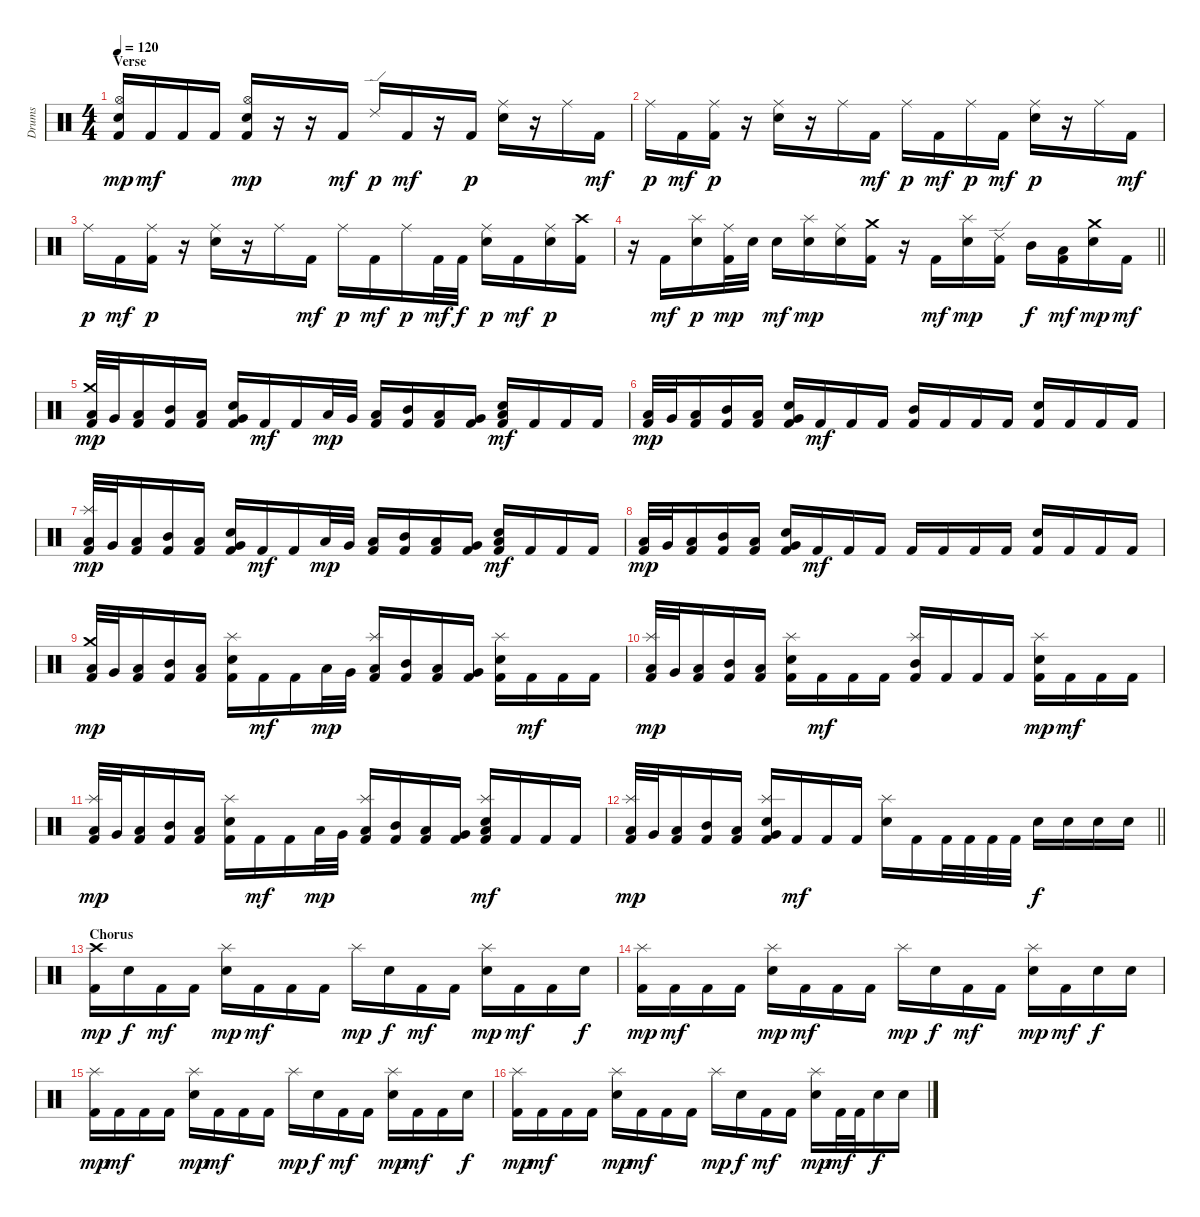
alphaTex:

\track ("Drums" "Drums") {instrument percussion}
\staff {score}
\articulation defaults
\ts (4 4)
\section ("" "Verse")
\tempo 120
\clef neutral
\ks c
("Kick (hit) 2" "Hi-Hat (open)" "Snare (hit) 2").16{dy mp} "Kick (hit) 2".16{dy mf} "Kick (hit) 2".16 "Kick (hit) 2".16 ("Kick (hit) 2" "Hi-Hat (open)" "Snare (hit) 2").16{dy mp} r.16 r.16 "Kick (hit) 2".16{dy mf} "Ride (edge) 2".16{dy p} "Kick (hit) 2".16{dy mf} r.16 "Kick (hit) 2".16{dy p} ("Ride (middle)" "Snare (hit) 2").16 r.16 "Ride (middle)".16 "Kick (hit) 2".16{dy mf} |
"Ride (middle)".16{dy p} "Kick (hit) 2".16{dy mf} ("Kick (hit) 2" "Ride (middle)").16{dy p} r.16 ("Ride (middle)" "Snare (hit) 2").16 r.16 "Ride (middle)".16 "Kick (hit) 2".16{dy mf} "Ride (middle)".16{dy p} "Kick (hit) 2".16{dy mf} "Ride (middle)".16{dy p} "Kick (hit) 2".16{dy mf} ("Ride (middle)" "Snare (hit) 2").16{dy p} r.16 "Ride (middle)".16 "Kick (hit) 2".16{dy mf} |
"Ride (middle)".16{dy p} "Kick (hit) 2".16{dy mf} ("Kick (hit) 2" "Ride (middle)").16{dy p} r.16 ("Ride (middle)" "Snare (hit) 2").16 r.16 "Ride (middle)".16 "Kick (hit) 2".16{dy mf} "Ride (middle)".16{dy p} "Kick (hit) 2".16{dy mf} "Ride (middle)".16{dy p} "Kick (hit) 2".32{dy mf} "Kick (hit) 2".32{dy f} ("Ride (middle)" "Snare (hit) 2").16{dy p} "Kick (hit) 2".16{dy mf} ("Ride (middle)" "Snare (hit) 2").16{dy p} ("Kick (hit) 2" "Crash high (hit)").16 |
\barLineRight lightlight
r.16 "Kick (hit) 2".16{dy mf} ("Splash (hit)" "Snare (hit) 2").16{dy p} ("Kick (hit) 2" "Ride (middle)").32{dy mp} "Snare (hit) 2".32 "Snare (hit) 2".16{dy mf} ("Splash (hit)" "Snare (hit) 2").16{dy mp} ("Ride (middle)" "Snare (hit) 2").16 ("Kick (hit) 2" "Crash medium (hit)").16 r.16 "Kick (hit) 2".16{dy mf} ("Splash (hit)" "Snare (hit) 2").16{dy mp} ("Kick (hit) 2" "Ride (edge) 2").16 "Mid Tom (hit)".16{dy f} ("Kick (hit) 2" "Low Tom (hit)").16{dy mf} ("Crash medium (hit)" "Snare (hit) 2").16{dy mp} "Kick (hit) 2".16{dy mf} |
("Kick (hit) 2" "Crash medium (hit)" "Low Tom (hit)").32{dy mp} "Very Low Tom (hit)".32 ("Kick (hit) 2" "Low Tom (hit)").16 ("Kick (hit) 2" "Mid Tom (hit)").16 ("Kick (hit) 2" "Low Tom (hit)").16 ("Kick (hit) 2" "Snare (hit) 2" "Very Low Tom (hit)").16 "Kick (hit) 2".16{dy mf} "Kick (hit) 2".16 "Low Tom (hit)".32{dy mp} "Very Low Tom (hit)".32 ("Kick (hit) 2" "Low Tom (hit)").16 ("Kick (hit) 2" "Mid Tom (hit)").16 ("Kick (hit) 2" "Low Tom (hit)").16 ("Kick (hit) 2" "Very Low Tom (hit)").16 ("Kick (hit) 2" "Snare (hit) 2" "Low Floor Tom (hit)").16{dy mf} "Kick (hit) 2".16 "Kick (hit) 2".16 "Kick (hit) 2".16 |
("Kick (hit) 2" "Low Tom (hit)").32{dy mp} "Very Low Tom (hit)".32 ("Kick (hit) 2" "Low Tom (hit)").16 ("Kick (hit) 2" "Mid Tom (hit)").16 ("Kick (hit) 2" "Low Tom (hit)").16 ("Kick (hit) 2" "Snare (hit) 2" "Very Low Tom (hit)").16 "Kick (hit) 2".16{dy mf} "Kick (hit) 2".16 "Kick (hit) 2".16 ("Kick (hit) 2" "Mid Tom (hit)").16 "Kick (hit) 2".16 "Kick (hit) 2".16 "Kick (hit) 2".16 ("Kick (hit) 2" "Snare (hit) 2").16 "Kick (hit) 2".16 "Kick (hit) 2".16 "Kick (hit) 2".16 |
("Kick (hit) 2" "Splash (hit)" "Low Tom (hit)").32{dy mp} "Very Low Tom (hit)".32 ("Kick (hit) 2" "Low Tom (hit)").16 ("Kick (hit) 2" "Mid Tom (hit)").16 ("Kick (hit) 2" "Low Tom (hit)").16 ("Kick (hit) 2" "Snare (hit) 2" "Very Low Tom (hit)").16 "Kick (hit) 2".16{dy mf} "Kick (hit) 2".16 "Low Tom (hit)".32{dy mp} "Very Low Tom (hit)".32 ("Kick (hit) 2" "Low Tom (hit)").16 ("Kick (hit) 2" "Mid Tom (hit)").16 ("Kick (hit) 2" "Low Tom (hit)").16 ("Kick (hit) 2" "Very Low Tom (hit)").16 ("Kick (hit) 2" "Snare (hit) 2" "Low Floor Tom (hit)").16{dy mf} "Kick (hit) 2".16 "Kick (hit) 2".16 "Kick (hit) 2".16 |
("Kick (hit) 2" "Low Tom (hit)").32{dy mp} "Very Low Tom (hit)".32 ("Kick (hit) 2" "Low Tom (hit)").16 ("Kick (hit) 2" "Mid Tom (hit)").16 ("Kick (hit) 2" "Low Tom (hit)").16 ("Kick (hit) 2" "Snare (hit) 2" "Very Low Tom (hit)").16 "Kick (hit) 2".16{dy mf} "Kick (hit) 2".16 "Kick (hit) 2".16 "Kick (hit) 2".16 "Kick (hit) 2".16 "Kick (hit) 2".16 "Kick (hit) 2".16 ("Kick (hit) 2" "Snare (hit) 2").16 "Kick (hit) 2".16 "Kick (hit) 2".16 "Kick (hit) 2".16 |
("Kick (hit) 2" "Crash medium (hit)" "Low Tom (hit)").32{dy mp} "Very Low Tom (hit)".32 ("Kick (hit) 2" "Low Tom (hit)").16 ("Kick (hit) 2" "Mid Tom (hit)").16 ("Kick (hit) 2" "Low Tom (hit)").16 ("Kick (hit) 2" "Splash (hit)" "Snare (hit) 2").16 "Kick (hit) 2".16{dy mf} "Kick (hit) 2".16 "Low Tom (hit)".32{dy mp} "Very Low Tom (hit)".32 ("Kick (hit) 2" "Splash (hit)" "Low Tom (hit)").16 ("Kick (hit) 2" "Mid Tom (hit)").16 ("Kick (hit) 2" "Low Tom (hit)").16 ("Kick (hit) 2" "Very Low Tom (hit)").16 ("Kick (hit) 2" "Splash (hit)" "Snare (hit) 2").16 "Kick (hit) 2".16{dy mf} "Kick (hit) 2".16 "Kick (hit) 2".16 |
("Kick (hit) 2" "Splash (hit)" "Low Tom (hit)").32{dy mp} "Very Low Tom (hit)".32 ("Kick (hit) 2" "Low Tom (hit)").16 ("Kick (hit) 2" "Mid Tom (hit)").16 ("Kick (hit) 2" "Low Tom (hit)").16 ("Kick (hit) 2" "Splash (hit)" "Snare (hit) 2").16 "Kick (hit) 2".16{dy mf} "Kick (hit) 2".16 "Kick (hit) 2".16 ("Kick (hit) 2" "Splash (hit)" "Mid Tom (hit)").16 "Kick (hit) 2".16 "Kick (hit) 2".16 "Kick (hit) 2".16 ("Kick (hit) 2" "Splash (hit)" "Snare (hit) 2").16{dy mp} "Kick (hit) 2".16{dy mf} "Kick (hit) 2".16 "Kick (hit) 2".16 |
("Kick (hit) 2" "Splash (hit)" "Low Tom (hit)").32{dy mp} "Very Low Tom (hit)".32 ("Kick (hit) 2" "Low Tom (hit)").16 ("Kick (hit) 2" "Mid Tom (hit)").16 ("Kick (hit) 2" "Low Tom (hit)").16 ("Kick (hit) 2" "Splash (hit)" "Snare (hit) 2").16 "Kick (hit) 2".16{dy mf} "Kick (hit) 2".16 "Low Tom (hit)".32{dy mp} "Very Low Tom (hit)".32 ("Kick (hit) 2" "Splash (hit)" "Low Tom (hit)").16 ("Kick (hit) 2" "Mid Tom (hit)").16 ("Kick (hit) 2" "Low Tom (hit)").16 ("Kick (hit) 2" "Very Low Tom (hit)").16 ("Kick (hit) 2" "Splash (hit)" "Snare (hit) 2" "Low Floor Tom (hit)").16{dy mf} "Kick (hit) 2".16 "Kick (hit) 2".16 "Kick (hit) 2".16 |
\barLineRight lightlight
("Kick (hit) 2" "Splash (hit)" "Low Tom (hit)").32{dy mp} "Very Low Tom (hit)".32 ("Kick (hit) 2" "Low Tom (hit)").16 ("Kick (hit) 2" "Mid Tom (hit)").16 ("Kick (hit) 2" "Low Tom (hit)").16 ("Kick (hit) 2" "Splash (hit)" "Snare (hit) 2" "Very Low Tom (hit)").16 "Kick (hit) 2".16{dy mf} "Kick (hit) 2".16 "Kick (hit) 2".16 ("Splash (hit)" "Snare (hit) 2").16 "Kick (hit) 2".16 "Kick (hit) 2".32 "Kick (hit) 2".32 "Kick (hit) 2".32 "Kick (hit) 2".32 "Snare (hit) 2".16{dy f} "Snare (hit) 2".16 "Snare (hit) 2".16 "Snare (hit) 2".16 |
\section ("" "Chorus")
("Kick (hit) 2" "Crash high (hit)").16{dy mp} "Snare (hit) 2".16{dy f} "Kick (hit) 2".16{dy mf} "Kick (hit) 2".16 ("Splash (hit)" "Snare (hit) 2").16{dy mp} "Kick (hit) 2".16{dy mf} "Kick (hit) 2".16 "Kick (hit) 2".16 "Splash (hit)".16{dy mp} "Snare (hit) 2".16{dy f} "Kick (hit) 2".16{dy mf} "Kick (hit) 2".16 ("Splash (hit)" "Snare (hit) 2").16{dy mp} "Kick (hit) 2".16{dy mf} "Kick (hit) 2".16 "Snare (hit) 2".16{dy f} |
("Kick (hit) 2" "Splash (hit)").16{dy mp} "Kick (hit) 2".16{dy mf} "Kick (hit) 2".16 "Kick (hit) 2".16 ("Splash (hit)" "Snare (hit) 2").16{dy mp} "Kick (hit) 2".16{dy mf} "Kick (hit) 2".16 "Kick (hit) 2".16 "Splash (hit)".16{dy mp} "Snare (hit) 2".16{dy f} "Kick (hit) 2".16{dy mf} "Kick (hit) 2".16 ("Splash (hit)" "Snare (hit) 2").16{dy mp} "Kick (hit) 2".16{dy mf} "Snare (hit) 2".16{dy f} "Snare (hit) 2".16 |
("Kick (hit) 2" "Splash (hit)").16{dy mp} "Kick (hit) 2".16{dy mf} "Kick (hit) 2".16 "Kick (hit) 2".16 ("Splash (hit)" "Snare (hit) 2").16{dy mp} "Kick (hit) 2".16{dy mf} "Kick (hit) 2".16 "Kick (hit) 2".16 "Splash (hit)".16{dy mp} "Snare (hit) 2".16{dy f} "Kick (hit) 2".16{dy mf} "Kick (hit) 2".16 ("Splash (hit)" "Snare (hit) 2").16{dy mp} "Kick (hit) 2".16{dy mf} "Kick (hit) 2".16 "Snare (hit) 2".16{dy f} |
("Kick (hit) 2" "Splash (hit)").16{dy mp} "Kick (hit) 2".16{dy mf} "Kick (hit) 2".16 "Kick (hit) 2".16 ("Splash (hit)" "Snare (hit) 2").16{dy mp} "Kick (hit) 2".16{dy mf} "Kick (hit) 2".16 "Kick (hit) 2".16 "Splash (hit)".16{dy mp} "Snare (hit) 2".16{dy f} "Kick (hit) 2".16{dy mf} "Kick (hit) 2".16 ("Splash (hit)" "Snare (hit) 2").16{dy mp} "Kick (hit) 2".32{dy mf} "Kick (hit) 2".32 "Snare (hit) 2".16{dy f} "Snare (hit) 2".16
